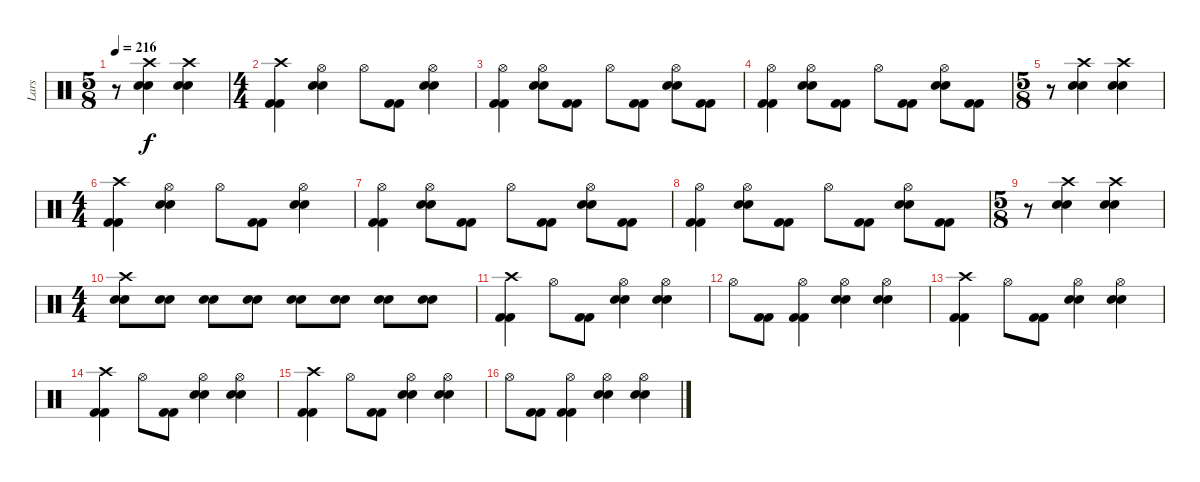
\track ("Lars" "Lars") {instrument percussion}
\staff {score}
\articulation defaults
\ts (5 8)
\tempo 216
\clef neutral
\ks c
r.8{dy f} ("Crash high (hit)" "Electric Snare (hit)" "Electric Snare (hit)").4 ("Crash high (hit)" "Electric Snare (hit)" "Electric Snare (hit)").4 |
\ts (4 4)
("Crash high (hit)" "Kick (hit) 2" "Kick (hit) 2").4 ("Hi-Hat (open)" "Electric Snare (hit)" "Electric Snare (hit)").4 "Hi-Hat (open)".8 ("Kick (hit) 2" "Kick (hit) 2").8 ("Hi-Hat (open)" "Electric Snare (hit)" "Electric Snare (hit)").4 |
("Hi-Hat (open)" "Kick (hit) 2" "Kick (hit) 2").4 ("Hi-Hat (open)" "Electric Snare (hit)" "Electric Snare (hit)").8 ("Kick (hit) 2" "Kick (hit) 2").8 "Hi-Hat (open)".8 ("Kick (hit) 2" "Kick (hit) 2").8 ("Hi-Hat (open)" "Electric Snare (hit)" "Electric Snare (hit)").8 ("Kick (hit) 2" "Kick (hit) 2").8 |
("Hi-Hat (open)" "Kick (hit) 2" "Kick (hit) 2").4 ("Hi-Hat (open)" "Electric Snare (hit)" "Electric Snare (hit)").8 ("Kick (hit) 2" "Kick (hit) 2").8 "Hi-Hat (open)".8 ("Kick (hit) 2" "Kick (hit) 2").8 ("Hi-Hat (open)" "Electric Snare (hit)" "Electric Snare (hit)").8 ("Kick (hit) 2" "Kick (hit) 2").8 |
\ts (5 8)
r.8 ("Crash high (hit)" "Electric Snare (hit)" "Electric Snare (hit)").4 ("Crash high (hit)" "Electric Snare (hit)" "Electric Snare (hit)").4 |
\ts (4 4)
("Crash high (hit)" "Kick (hit) 2" "Kick (hit) 2").4 ("Hi-Hat (open)" "Electric Snare (hit)" "Electric Snare (hit)").4 "Hi-Hat (open)".8 ("Kick (hit) 2" "Kick (hit) 2").8 ("Hi-Hat (open)" "Electric Snare (hit)" "Electric Snare (hit)").4 |
("Hi-Hat (open)" "Kick (hit) 2" "Kick (hit) 2").4 ("Hi-Hat (open)" "Electric Snare (hit)" "Electric Snare (hit)").8 ("Kick (hit) 2" "Kick (hit) 2").8 "Hi-Hat (open)".8 ("Kick (hit) 2" "Kick (hit) 2").8 ("Hi-Hat (open)" "Electric Snare (hit)" "Electric Snare (hit)").8 ("Kick (hit) 2" "Kick (hit) 2").8 |
("Hi-Hat (open)" "Kick (hit) 2" "Kick (hit) 2").4 ("Hi-Hat (open)" "Electric Snare (hit)" "Electric Snare (hit)").8 ("Kick (hit) 2" "Kick (hit) 2").8 "Hi-Hat (open)".8 ("Kick (hit) 2" "Kick (hit) 2").8 ("Hi-Hat (open)" "Electric Snare (hit)" "Electric Snare (hit)").8 ("Kick (hit) 2" "Kick (hit) 2").8 |
\ts (5 8)
r.8 ("Crash high (hit)" "Electric Snare (hit)" "Electric Snare (hit)").4 ("Crash high (hit)" "Electric Snare (hit)" "Electric Snare (hit)").4 |
\ts (4 4)
("Crash high (hit)" "Electric Snare (hit)" "Electric Snare (hit)").8 ("Electric Snare (hit)" "Electric Snare (hit)").8 ("Electric Snare (hit)" "Electric Snare (hit)").8 ("Electric Snare (hit)" "Electric Snare (hit)").8 ("Electric Snare (hit)" "Electric Snare (hit)").8 ("Electric Snare (hit)" "Electric Snare (hit)").8 ("Electric Snare (hit)" "Electric Snare (hit)").8 ("Electric Snare (hit)" "Electric Snare (hit)").8 |
("Crash high (hit)" "Kick (hit) 2" "Kick (hit) 2").4 "Hi-Hat (open)".8 ("Kick (hit) 2" "Kick (hit) 2").8 ("Hi-Hat (open)" "Electric Snare (hit)" "Electric Snare (hit)").4 ("Hi-Hat (open)" "Electric Snare (hit)" "Electric Snare (hit)").4 |
"Hi-Hat (open)".8 ("Kick (hit) 2" "Kick (hit) 2").8 ("Hi-Hat (open)" "Kick (hit) 2" "Kick (hit) 2").4 ("Hi-Hat (open)" "Electric Snare (hit)" "Electric Snare (hit)").4 ("Hi-Hat (open)" "Electric Snare (hit)" "Electric Snare (hit)").4 |
("Crash high (hit)" "Kick (hit) 2" "Kick (hit) 2").4 "Hi-Hat (open)".8 ("Kick (hit) 2" "Kick (hit) 2").8 ("Hi-Hat (open)" "Electric Snare (hit)" "Electric Snare (hit)").4 ("Hi-Hat (open)" "Electric Snare (hit)" "Electric Snare (hit)").4 |
("Crash high (hit)" "Kick (hit) 2" "Kick (hit) 2").4 "Hi-Hat (open)".8 ("Kick (hit) 2" "Kick (hit) 2").8 ("Hi-Hat (open)" "Electric Snare (hit)" "Electric Snare (hit)").4 ("Hi-Hat (open)" "Electric Snare (hit)" "Electric Snare (hit)").4 |
("Crash high (hit)" "Kick (hit) 2" "Kick (hit) 2").4 "Hi-Hat (open)".8 ("Kick (hit) 2" "Kick (hit) 2").8 ("Hi-Hat (open)" "Electric Snare (hit)" "Electric Snare (hit)").4 ("Hi-Hat (open)" "Electric Snare (hit)" "Electric Snare (hit)").4 |
"Hi-Hat (open)".8 ("Kick (hit) 2" "Kick (hit) 2").8 ("Hi-Hat (open)" "Kick (hit) 2" "Kick (hit) 2").4 ("Hi-Hat (open)" "Electric Snare (hit)" "Electric Snare (hit)").4 ("Hi-Hat (open)" "Electric Snare (hit)" "Electric Snare (hit)").4
